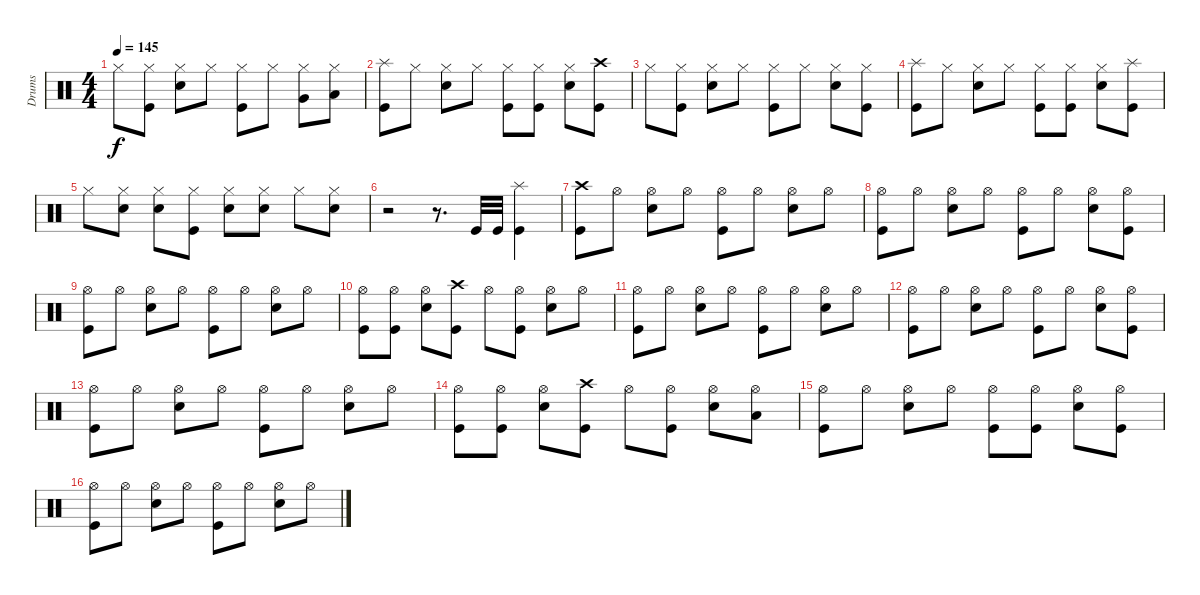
\track ("Drums" "Drums") {instrument percussion}
\staff {score}
\articulation defaults
\ts (4 4)
\tempo 145
\clef neutral
\ks c "Hi-Hat (closed)".8{dy f}
("Hi-Hat (closed)" "Kick (hit)").8 ("Hi-Hat (closed)" "Snare (hit) 2").8 "Hi-Hat (closed)".8 ("Hi-Hat (closed)" "Kick (hit)").8 "Hi-Hat (closed)".8 ("Hi-Hat (closed)" "Very Low Tom (hit)").8 ("Hi-Hat (closed)" "Low Floor Tom (hit)").8 |
("Splash (hit)" "Kick (hit)").8 "Hi-Hat (closed)".8 ("Hi-Hat (closed)" "Snare (hit) 2").8 "Hi-Hat (closed)".8 ("Hi-Hat (closed)" "Kick (hit)").8 ("Hi-Hat (closed)" "Kick (hit)").8 ("Hi-Hat (closed)" "Snare (hit) 2").8 ("Crash high (hit)" "Kick (hit)").8 |
"Hi-Hat (closed)".8 ("Hi-Hat (closed)" "Kick (hit)").8 ("Hi-Hat (closed)" "Snare (hit) 2").8 "Hi-Hat (closed)".8 ("Hi-Hat (closed)" "Kick (hit)").8 "Hi-Hat (closed)".8 ("Hi-Hat (closed)" "Snare (hit) 2").8 ("Hi-Hat (closed)" "Kick (hit)").8 |
("Splash (hit)" "Kick (hit)").8 "Hi-Hat (closed)".8 ("Hi-Hat (closed)" "Snare (hit) 2").8 "Hi-Hat (closed)".8 ("Hi-Hat (closed)" "Kick (hit)").8 ("Hi-Hat (closed)" "Kick (hit)").8 ("Hi-Hat (closed)" "Snare (hit) 2").8 ("Splash (hit)" "Kick (hit)").8 |
"Hi-Hat (closed)".8 ("Hi-Hat (closed)" "Snare (hit) 2").8 ("Hi-Hat (closed)" "Snare (hit) 2").8 ("Hi-Hat (closed)" "Kick (hit)").8 ("Hi-Hat (closed)" "Snare (hit) 2").8 ("Hi-Hat (closed)" "Snare (hit) 2").8 "Hi-Hat (closed)".8 ("Hi-Hat (closed)" "Snare (hit) 2").8 |
r.2 r.8{d} "Kick (hit)".32 "Kick (hit)".32 ("Splash (hit)" "Kick (hit)").4 |
("Crash high (hit)" "Kick (hit)").8 "Hi-Hat (open)".8 ("Hi-Hat (open)" "Snare (hit) 2").8 "Hi-Hat (open)".8 ("Hi-Hat (open)" "Kick (hit)").8 "Hi-Hat (open)".8 ("Hi-Hat (open)" "Snare (hit) 2").8 "Hi-Hat (open)".8 |
("Hi-Hat (open)" "Kick (hit)").8 "Hi-Hat (open)".8 ("Hi-Hat (open)" "Snare (hit) 2").8 "Hi-Hat (open)".8 ("Hi-Hat (open)" "Kick (hit)").8 "Hi-Hat (open)".8 ("Hi-Hat (open)" "Snare (hit) 2").8 ("Hi-Hat (open)" "Kick (hit)").8 |
("Hi-Hat (open)" "Kick (hit)").8 "Hi-Hat (open)".8 ("Hi-Hat (open)" "Snare (hit) 2").8 "Hi-Hat (open)".8 ("Hi-Hat (open)" "Kick (hit)").8 "Hi-Hat (open)".8 ("Hi-Hat (open)" "Snare (hit) 2").8 "Hi-Hat (open)".8 |
("Hi-Hat (open)" "Kick (hit)").8 ("Hi-Hat (open)" "Kick (hit)").8 ("Hi-Hat (open)" "Snare (hit) 2").8 ("Crash high (hit)" "Kick (hit)").8 "Hi-Hat (open)".8 ("Hi-Hat (open)" "Kick (hit)").8 ("Hi-Hat (open)" "Snare (hit) 2").8 "Hi-Hat (open)".8 |
("Hi-Hat (open)" "Kick (hit)").8 "Hi-Hat (open)".8 ("Hi-Hat (open)" "Snare (hit) 2").8 "Hi-Hat (open)".8 ("Hi-Hat (open)" "Kick (hit)").8 "Hi-Hat (open)".8 ("Hi-Hat (open)" "Snare (hit) 2").8 "Hi-Hat (open)".8 |
("Hi-Hat (open)" "Kick (hit)").8 "Hi-Hat (open)".8 ("Hi-Hat (open)" "Snare (hit) 2").8 "Hi-Hat (open)".8 ("Hi-Hat (open)" "Kick (hit)").8 "Hi-Hat (open)".8 ("Hi-Hat (open)" "Snare (hit) 2").8 ("Hi-Hat (open)" "Kick (hit)").8 |
("Hi-Hat (open)" "Kick (hit)").8 "Hi-Hat (open)".8 ("Hi-Hat (open)" "Snare (hit) 2").8 "Hi-Hat (open)".8 ("Hi-Hat (open)" "Kick (hit)").8 "Hi-Hat (open)".8 ("Hi-Hat (open)" "Snare (hit) 2").8 "Hi-Hat (open)".8 |
("Hi-Hat (open)" "Kick (hit)").8 ("Hi-Hat (open)" "Kick (hit)").8 ("Hi-Hat (open)" "Snare (hit) 2").8 ("Crash high (hit)" "Kick (hit)").8 "Hi-Hat (open)".8 ("Hi-Hat (open)" "Kick (hit)").8 ("Hi-Hat (open)" "Snare (hit) 2").8 ("Hi-Hat (open)" "Low Tom (hit)").8 |
("Hi-Hat (open)" "Kick (hit)").8 "Hi-Hat (open)".8 ("Hi-Hat (open)" "Snare (hit) 2").8 "Hi-Hat (open)".8 ("Hi-Hat (open)" "Kick (hit)").8 ("Hi-Hat (open)" "Kick (hit)").8 ("Hi-Hat (open)" "Snare (hit) 2").8 ("Hi-Hat (open)" "Kick (hit)").8 |
("Hi-Hat (open)" "Kick (hit)").8 "Hi-Hat (open)".8 ("Hi-Hat (open)" "Snare (hit) 2").8 "Hi-Hat (open)".8 ("Hi-Hat (open)" "Kick (hit)").8 "Hi-Hat (open)".8 ("Hi-Hat (open)" "Snare (hit) 2").8 "Hi-Hat (open)".8
